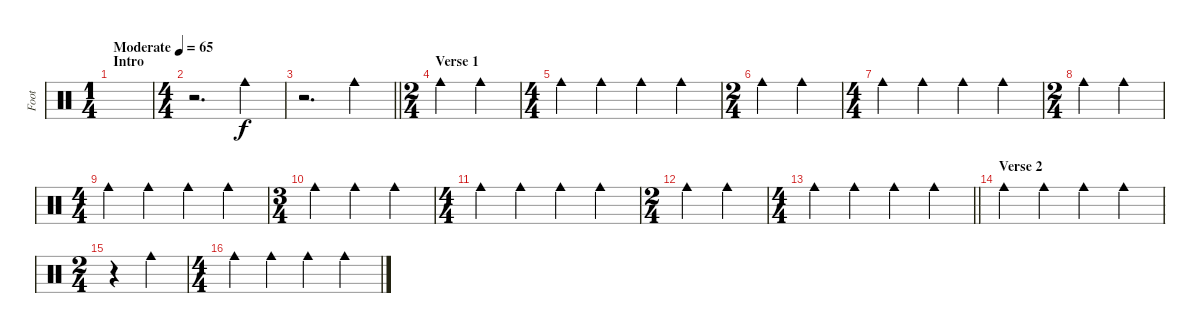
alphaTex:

\track ("Foot" "Foot") {instrument percussion}
\staff {score}
\articulation defaults
\ts (1 4)
\section ("" "Intro")
\tempo (65 "Moderate")
\clef neutral
\ks c
|
\ts (4 4)
r.2{d} "Cowbell medium (hit)".4 |
\barLineRight lightlight
r.2{d} "Cowbell medium (hit)".4 |
\ts (2 4)
\section ("" "Verse 1")
"Cowbell medium (hit)".4 "Cowbell medium (hit)".4 |
\ts (4 4)
"Cowbell medium (hit)".4 "Cowbell medium (hit)".4 "Cowbell medium (hit)".4 "Cowbell medium (hit)".4 |
\ts (2 4)
"Cowbell medium (hit)".4 "Cowbell medium (hit)".4 |
\ts (4 4)
"Cowbell medium (hit)".4 "Cowbell medium (hit)".4 "Cowbell medium (hit)".4 "Cowbell medium (hit)".4 |
\ts (2 4)
"Cowbell medium (hit)".4 "Cowbell medium (hit)".4 |
\ts (4 4)
"Cowbell medium (hit)".4 "Cowbell medium (hit)".4 "Cowbell medium (hit)".4 "Cowbell medium (hit)".4 |
\ts (3 4)
"Cowbell medium (hit)".4 "Cowbell medium (hit)".4 "Cowbell medium (hit)".4 |
\ts (4 4)
"Cowbell medium (hit)".4 "Cowbell medium (hit)".4 "Cowbell medium (hit)".4 "Cowbell medium (hit)".4 |
\ts (2 4)
"Cowbell medium (hit)".4 "Cowbell medium (hit)".4 |
\ts (4 4)
\barLineRight lightlight "Cowbell medium (hit)".4 "Cowbell medium (hit)".4 "Cowbell medium (hit)".4 "Cowbell medium (hit)".4
|
\section ("" "Verse 2")
"Cowbell medium (hit)".4 "Cowbell medium (hit)".4 "Cowbell medium (hit)".4 "Cowbell medium (hit)".4 |
\ts (2 4)
r.4 "Cowbell medium (hit)".4 |
\ts (4 4)
"Cowbell medium (hit)".4 "Cowbell medium (hit)".4 "Cowbell medium (hit)".4 "Cowbell medium (hit)".4
